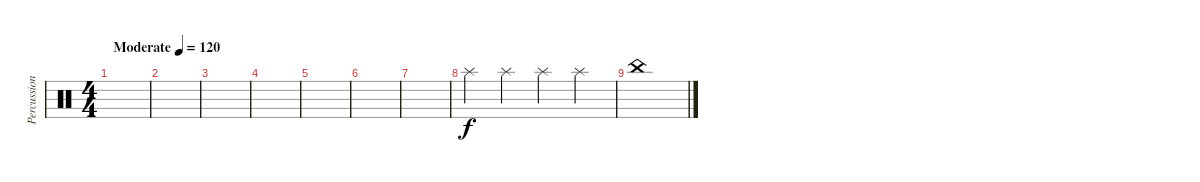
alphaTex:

\track ("Percussion" "Percussion") {instrument percussion}
\staff {score}
\articulation defaults
\ts (4 4)
\tempo (120 "Moderate")
\clef neutral
\ks c
|
|
|
|
|
|
|
"Splash (hit)".4 "Splash (hit)".4 "Splash (hit)".4 "Splash (hit)".4 |
"China (hit)".1
